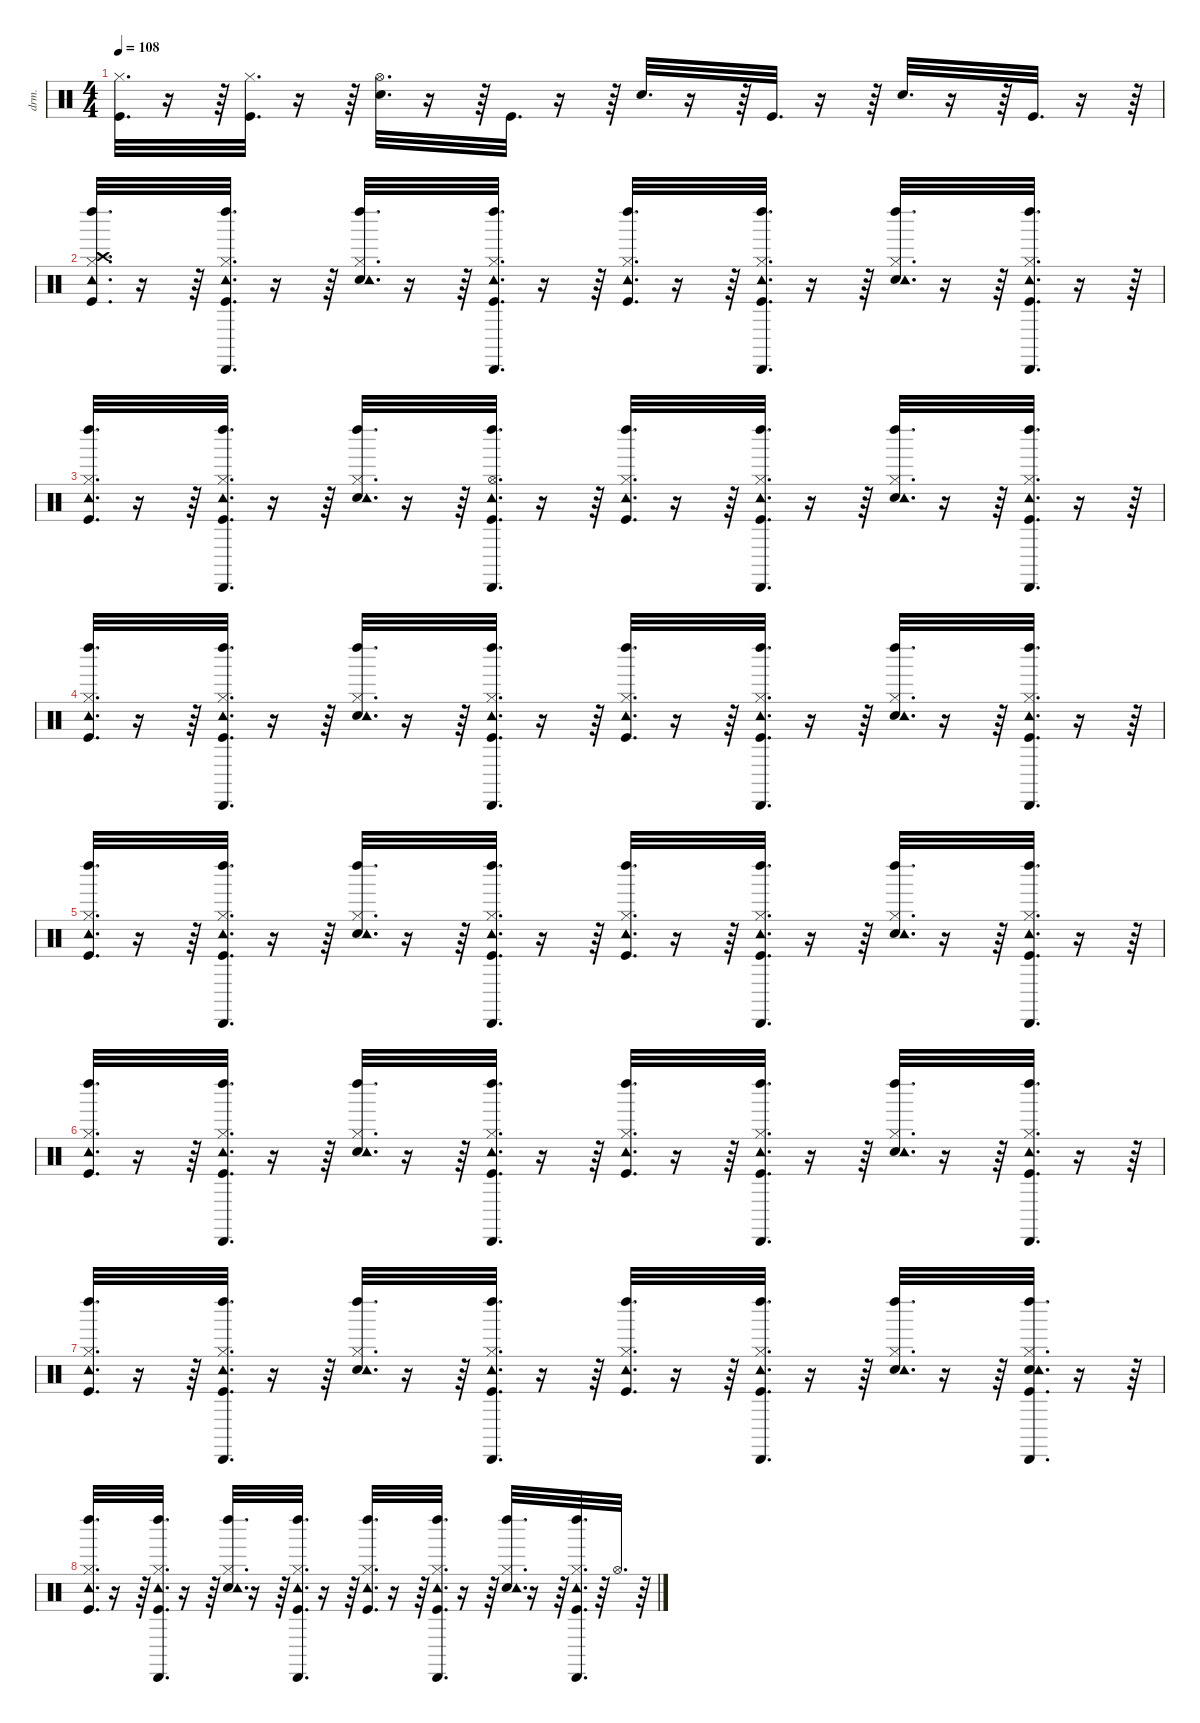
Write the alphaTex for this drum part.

\defaultSystemsLayout 4
\hideDynamics
\bracketExtendMode nobrackets
\otherSystemsTrackNameOrientation horizontal
\track ("Percussions" "drm.") {instrument percussion}
\staff {score}
\articulation defaults
\ts (4 4)
\tempo 108
\clef neutral
\ks c
("Hi-Hat (closed)" "Kick (hit)").32{d dy f} r.16 r.64 ("Hi-Hat (closed)" "Kick (hit)").32{d} r.16 r.64 ("Hi-Hat (open)" "Snare (hit) 2").32{d} r.16 r.64 "Kick (hit)".32{d} r.16 r.64 "Snare (hit) 2".32{d} r.16 r.64 "Kick (hit)".32{d} r.16 r.64 "Snare (hit) 2".32{d} r.16 r.64 "Kick (hit)".32{d} r.16 r.64 |
("Left Maraca (hit)" "Crash high (hit)" "Kick (hit)" "Hi-Hat (closed)" "Tambourine (hit)").32{d} r.16 r.64 ("Cabasa (hit)" "Tambourine (hit)" "Kick (hit)" "Hi-Hat (closed)" "Left Maraca (hit)").32{d} r.16 r.64 ("Left Maraca (hit)" "Snare (hit) 2" "Hi-Hat (closed)" "Tambourine (hit)").32{d} r.16 r.64 ("Cabasa (hit)" "Tambourine (hit)" "Kick (hit)" "Hi-Hat (closed)" "Left Maraca (hit)").32{d} r.16 r.64 ("Left Maraca (hit)" "Kick (hit)" "Hi-Hat (closed)" "Tambourine (hit)").32{d} r.16 r.64 ("Cabasa (hit)" "Tambourine (hit)" "Kick (hit)" "Hi-Hat (closed)" "Left Maraca (hit)").32{d} r.16 r.64 ("Left Maraca (hit)" "Snare (hit) 2" "Hi-Hat (closed)" "Tambourine (hit)").32{d} r.16 r.64 ("Cabasa (hit)" "Tambourine (hit)" "Kick (hit)" "Hi-Hat (closed)" "Left Maraca (hit)").32{d} r.16 r.64 |
("Left Maraca (hit)" "Kick (hit)" "Hi-Hat (closed)" "Tambourine (hit)").32{d} r.16 r.64 ("Cabasa (hit)" "Tambourine (hit)" "Kick (hit)" "Hi-Hat (closed)" "Left Maraca (hit)").32{d} r.16 r.64 ("Left Maraca (hit)" "Snare (hit) 2" "Hi-Hat (closed)" "Tambourine (hit)").32{d} r.16 r.64 ("Cabasa (hit)" "Tambourine (hit)" "Kick (hit)" "Hi-Hat (open)" "Left Maraca (hit)").32{d} r.16 r.64 ("Left Maraca (hit)" "Kick (hit)" "Hi-Hat (closed)" "Tambourine (hit)").32{d} r.16 r.64 ("Cabasa (hit)" "Tambourine (hit)" "Kick (hit)" "Hi-Hat (closed)" "Left Maraca (hit)").32{d} r.16 r.64 ("Left Maraca (hit)" "Snare (hit) 2" "Hi-Hat (closed)" "Tambourine (hit)").32{d} r.16 r.64 ("Cabasa (hit)" "Tambourine (hit)" "Kick (hit)" "Hi-Hat (closed)" "Left Maraca (hit)").32{d} r.16 r.64 |
("Left Maraca (hit)" "Kick (hit)" "Hi-Hat (closed)" "Tambourine (hit)").32{d} r.16 r.64 ("Cabasa (hit)" "Tambourine (hit)" "Kick (hit)" "Hi-Hat (closed)" "Left Maraca (hit)").32{d} r.16 r.64 ("Left Maraca (hit)" "Snare (hit) 2" "Hi-Hat (closed)" "Tambourine (hit)").32{d} r.16 r.64 ("Cabasa (hit)" "Tambourine (hit)" "Kick (hit)" "Hi-Hat (closed)" "Left Maraca (hit)").32{d} r.16 r.64 ("Left Maraca (hit)" "Kick (hit)" "Hi-Hat (closed)" "Tambourine (hit)").32{d} r.16 r.64 ("Cabasa (hit)" "Tambourine (hit)" "Kick (hit)" "Hi-Hat (closed)" "Left Maraca (hit)").32{d} r.16 r.64 ("Left Maraca (hit)" "Snare (hit) 2" "Hi-Hat (closed)" "Tambourine (hit)").32{d} r.16 r.64 ("Cabasa (hit)" "Tambourine (hit)" "Kick (hit)" "Hi-Hat (closed)" "Left Maraca (hit)").32{d} r.16 r.64 |
("Left Maraca (hit)" "Kick (hit)" "Hi-Hat (closed)" "Tambourine (hit)").32{d} r.16 r.64 ("Cabasa (hit)" "Tambourine (hit)" "Kick (hit)" "Hi-Hat (closed)" "Left Maraca (hit)").32{d} r.16 r.64 ("Left Maraca (hit)" "Snare (hit) 2" "Hi-Hat (closed)" "Tambourine (hit)").32{d} r.16 r.64 ("Cabasa (hit)" "Tambourine (hit)" "Kick (hit)" "Hi-Hat (closed)" "Left Maraca (hit)").32{d} r.16 r.64 ("Left Maraca (hit)" "Kick (hit)" "Hi-Hat (closed)" "Tambourine (hit)").32{d} r.16 r.64 ("Cabasa (hit)" "Tambourine (hit)" "Kick (hit)" "Hi-Hat (closed)" "Left Maraca (hit)").32{d} r.16 r.64 ("Left Maraca (hit)" "Snare (hit) 2" "Hi-Hat (closed)" "Tambourine (hit)").32{d} r.16 r.64 ("Cabasa (hit)" "Tambourine (hit)" "Kick (hit)" "Hi-Hat (closed)" "Left Maraca (hit)").32{d} r.16 r.64 |
("Left Maraca (hit)" "Kick (hit)" "Hi-Hat (closed)" "Tambourine (hit)").32{d} r.16 r.64 ("Cabasa (hit)" "Tambourine (hit)" "Kick (hit)" "Hi-Hat (closed)" "Left Maraca (hit)").32{d} r.16 r.64 ("Left Maraca (hit)" "Snare (hit) 2" "Hi-Hat (closed)" "Tambourine (hit)").32{d} r.16 r.64 ("Cabasa (hit)" "Tambourine (hit)" "Kick (hit)" "Hi-Hat (closed)" "Left Maraca (hit)").32{d} r.16 r.64 ("Left Maraca (hit)" "Kick (hit)" "Hi-Hat (closed)" "Tambourine (hit)").32{d} r.16 r.64 ("Cabasa (hit)" "Tambourine (hit)" "Kick (hit)" "Hi-Hat (closed)" "Left Maraca (hit)").32{d} r.16 r.64 ("Left Maraca (hit)" "Snare (hit) 2" "Hi-Hat (closed)" "Tambourine (hit)").32{d} r.16 r.64 ("Cabasa (hit)" "Tambourine (hit)" "Kick (hit)" "Hi-Hat (closed)" "Left Maraca (hit)").32{d} r.16 r.64 |
("Left Maraca (hit)" "Kick (hit)" "Hi-Hat (closed)" "Tambourine (hit)").32{d} r.16 r.64 ("Cabasa (hit)" "Tambourine (hit)" "Kick (hit)" "Hi-Hat (closed)" "Left Maraca (hit)").32{d} r.16 r.64 ("Left Maraca (hit)" "Snare (hit) 2" "Hi-Hat (closed)" "Tambourine (hit)").32{d} r.16 r.64 ("Cabasa (hit)" "Tambourine (hit)" "Kick (hit)" "Hi-Hat (closed)" "Left Maraca (hit)").32{d} r.16 r.64 ("Left Maraca (hit)" "Kick (hit)" "Hi-Hat (closed)" "Tambourine (hit)").32{d} r.16 r.64 ("Cabasa (hit)" "Tambourine (hit)" "Kick (hit)" "Hi-Hat (closed)" "Left Maraca (hit)").32{d} r.16 r.64 ("Left Maraca (hit)" "Snare (hit) 2" "Hi-Hat (closed)" "Tambourine (hit)").32{d} r.16 r.64 ("Cabasa (hit)" "Snare (hit) 2" "Hi-Hat (closed)" "Kick (hit)" "Left Maraca (hit)" "Tambourine (hit)").32{d} r.16 r.64 |
("Left Maraca (hit)" "Kick (hit)" "Hi-Hat (closed)" "Tambourine (hit)").32{d} r.16 r.64 ("Cabasa (hit)" "Tambourine (hit)" "Kick (hit)" "Hi-Hat (closed)" "Left Maraca (hit)").32{d} r.16 r.64 ("Left Maraca (hit)" "Snare (hit) 2" "Hi-Hat (closed)" "Tambourine (hit)").32{d} r.16 r.64 ("Cabasa (hit)" "Tambourine (hit)" "Kick (hit)" "Hi-Hat (closed)" "Left Maraca (hit)").32{d} r.16 r.64 ("Left Maraca (hit)" "Kick (hit)" "Hi-Hat (closed)" "Tambourine (hit)").32{d} r.16 r.64 ("Cabasa (hit)" "Tambourine (hit)" "Kick (hit)" "Hi-Hat (closed)" "Left Maraca (hit)").32{d} r.16 r.64 ("Left Maraca (hit)" "Snare (hit) 2" "Hi-Hat (closed)" "Tambourine (hit)").32{d} r.16 r.64 ("Cabasa (hit)" "Tambourine (hit)" "Kick (hit)" "Hi-Hat (closed)" "Left Maraca (hit)").32{d} r.64 "Hi-Hat (open)".32{d} r.64
